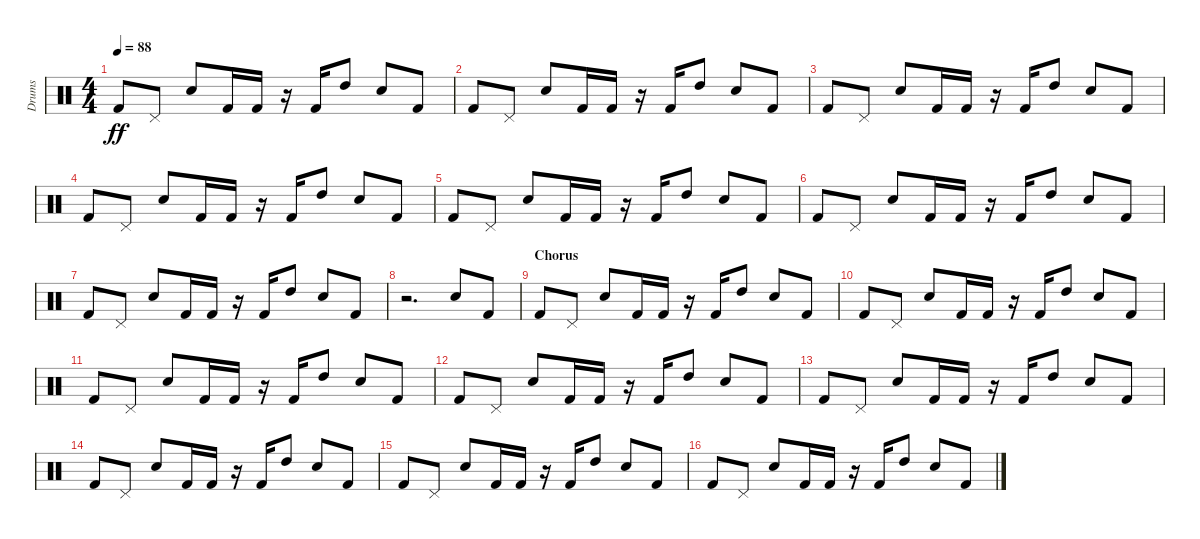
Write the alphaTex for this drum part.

\track ("Drums" "Drums") {solo instrument percussion}
\staff {score}
\articulation defaults
\ts (4 4)
\tempo 88
\clef neutral
\ks aminor "Kick (hit) 2".8{dy ff} "Pedal Hi-Hat (hit)".8 "Snare (hit) 2".8 "Kick (hit) 2".16 "Kick (hit) 2".16
r.16 "Kick (hit) 2".16 "High Tom (hit)".8 "Snare (hit) 2".8 "Kick (hit) 2".8 |
"Kick (hit) 2".8 "Pedal Hi-Hat (hit)".8 "Snare (hit) 2".8 "Kick (hit) 2".16 "Kick (hit) 2".16 r.16 "Kick (hit) 2".16 "High Tom (hit)".8 "Snare (hit) 2".8 "Kick (hit) 2".8 |
"Kick (hit) 2".8 "Pedal Hi-Hat (hit)".8 "Snare (hit) 2".8 "Kick (hit) 2".16 "Kick (hit) 2".16 r.16 "Kick (hit) 2".16 "High Tom (hit)".8 "Snare (hit) 2".8 "Kick (hit) 2".8 |
"Kick (hit) 2".8 "Pedal Hi-Hat (hit)".8 "Snare (hit) 2".8 "Kick (hit) 2".16 "Kick (hit) 2".16 r.16 "Kick (hit) 2".16 "High Tom (hit)".8 "Snare (hit) 2".8 "Kick (hit) 2".8 |
"Kick (hit) 2".8 "Pedal Hi-Hat (hit)".8 "Snare (hit) 2".8 "Kick (hit) 2".16 "Kick (hit) 2".16 r.16 "Kick (hit) 2".16 "High Tom (hit)".8 "Snare (hit) 2".8 "Kick (hit) 2".8 |
"Kick (hit) 2".8 "Pedal Hi-Hat (hit)".8 "Snare (hit) 2".8 "Kick (hit) 2".16 "Kick (hit) 2".16 r.16 "Kick (hit) 2".16 "High Tom (hit)".8 "Snare (hit) 2".8 "Kick (hit) 2".8 |
"Kick (hit) 2".8 "Pedal Hi-Hat (hit)".8 "Snare (hit) 2".8 "Kick (hit) 2".16 "Kick (hit) 2".16 r.16 "Kick (hit) 2".16 "High Tom (hit)".8 "Snare (hit) 2".8 "Kick (hit) 2".8 |
r.2{d} "Snare (hit) 2".8 "Kick (hit) 2".8 |
\section ("" "Chorus")
"Kick (hit) 2".8 "Pedal Hi-Hat (hit)".8 "Snare (hit) 2".8 "Kick (hit) 2".16 "Kick (hit) 2".16 r.16 "Kick (hit) 2".16 "High Tom (hit)".8 "Snare (hit) 2".8 "Kick (hit) 2".8 |
"Kick (hit) 2".8 "Pedal Hi-Hat (hit)".8 "Snare (hit) 2".8 "Kick (hit) 2".16 "Kick (hit) 2".16 r.16 "Kick (hit) 2".16 "High Tom (hit)".8 "Snare (hit) 2".8 "Kick (hit) 2".8 |
"Kick (hit) 2".8 "Pedal Hi-Hat (hit)".8 "Snare (hit) 2".8 "Kick (hit) 2".16 "Kick (hit) 2".16 r.16 "Kick (hit) 2".16 "High Tom (hit)".8 "Snare (hit) 2".8 "Kick (hit) 2".8 |
"Kick (hit) 2".8 "Pedal Hi-Hat (hit)".8 "Snare (hit) 2".8 "Kick (hit) 2".16 "Kick (hit) 2".16 r.16 "Kick (hit) 2".16 "High Tom (hit)".8 "Snare (hit) 2".8 "Kick (hit) 2".8 |
"Kick (hit) 2".8 "Pedal Hi-Hat (hit)".8 "Snare (hit) 2".8 "Kick (hit) 2".16 "Kick (hit) 2".16 r.16 "Kick (hit) 2".16 "High Tom (hit)".8 "Snare (hit) 2".8 "Kick (hit) 2".8 |
"Kick (hit) 2".8 "Pedal Hi-Hat (hit)".8 "Snare (hit) 2".8 "Kick (hit) 2".16 "Kick (hit) 2".16 r.16 "Kick (hit) 2".16 "High Tom (hit)".8 "Snare (hit) 2".8 "Kick (hit) 2".8 |
"Kick (hit) 2".8 "Pedal Hi-Hat (hit)".8 "Snare (hit) 2".8 "Kick (hit) 2".16 "Kick (hit) 2".16 r.16 "Kick (hit) 2".16 "High Tom (hit)".8 "Snare (hit) 2".8 "Kick (hit) 2".8 |
"Kick (hit) 2".8 "Pedal Hi-Hat (hit)".8 "Snare (hit) 2".8 "Kick (hit) 2".16 "Kick (hit) 2".16 r.16 "Kick (hit) 2".16 "High Tom (hit)".8 "Snare (hit) 2".8 "Kick (hit) 2".8
